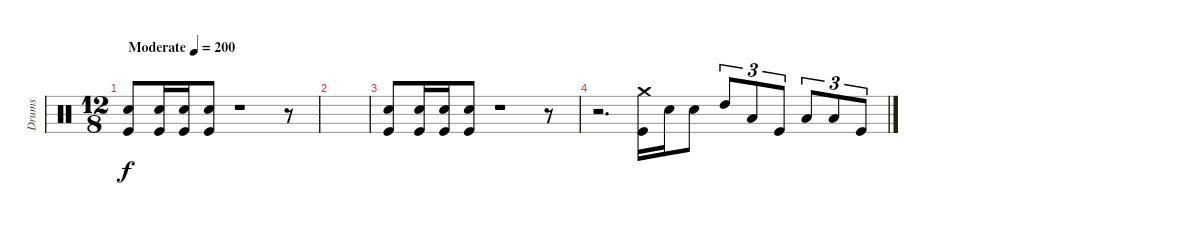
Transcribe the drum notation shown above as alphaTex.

\track ("Drums" "Drums") {instrument percussion}
\staff {score}
\articulation defaults
\ts (12 8)
\tempo (200 "Moderate")
\clef neutral
\ks c
("Snare (hit) 2" "Kick (hit)").8{dy f} ("Snare (hit) 2" "Kick (hit)").16 ("Snare (hit) 2" "Kick (hit)").16 ("Snare (hit) 2" "Kick (hit)").8 r.1 r.8 |
|
("Snare (hit) 2" "Kick (hit)").8 ("Snare (hit) 2" "Kick (hit)").16 ("Snare (hit) 2" "Kick (hit)").16 ("Snare (hit) 2" "Kick (hit)").8 r.1 r.8 |
r.2{d} ("Crash medium (hit)" "Kick (hit)").16 "Snare (hit) 2".16 "Snare (hit) 2".8 "High Tom (hit)".8{tu (3 2)} "Low Floor Tom (hit)".8{tu (3 2)} "Kick (hit)".8{tu (3 2)} "Low Tom (hit)".8{tu (3 2)} "Low Floor Tom (hit)".8{tu (3 2)} "Kick (hit)".8{tu (3 2)}
